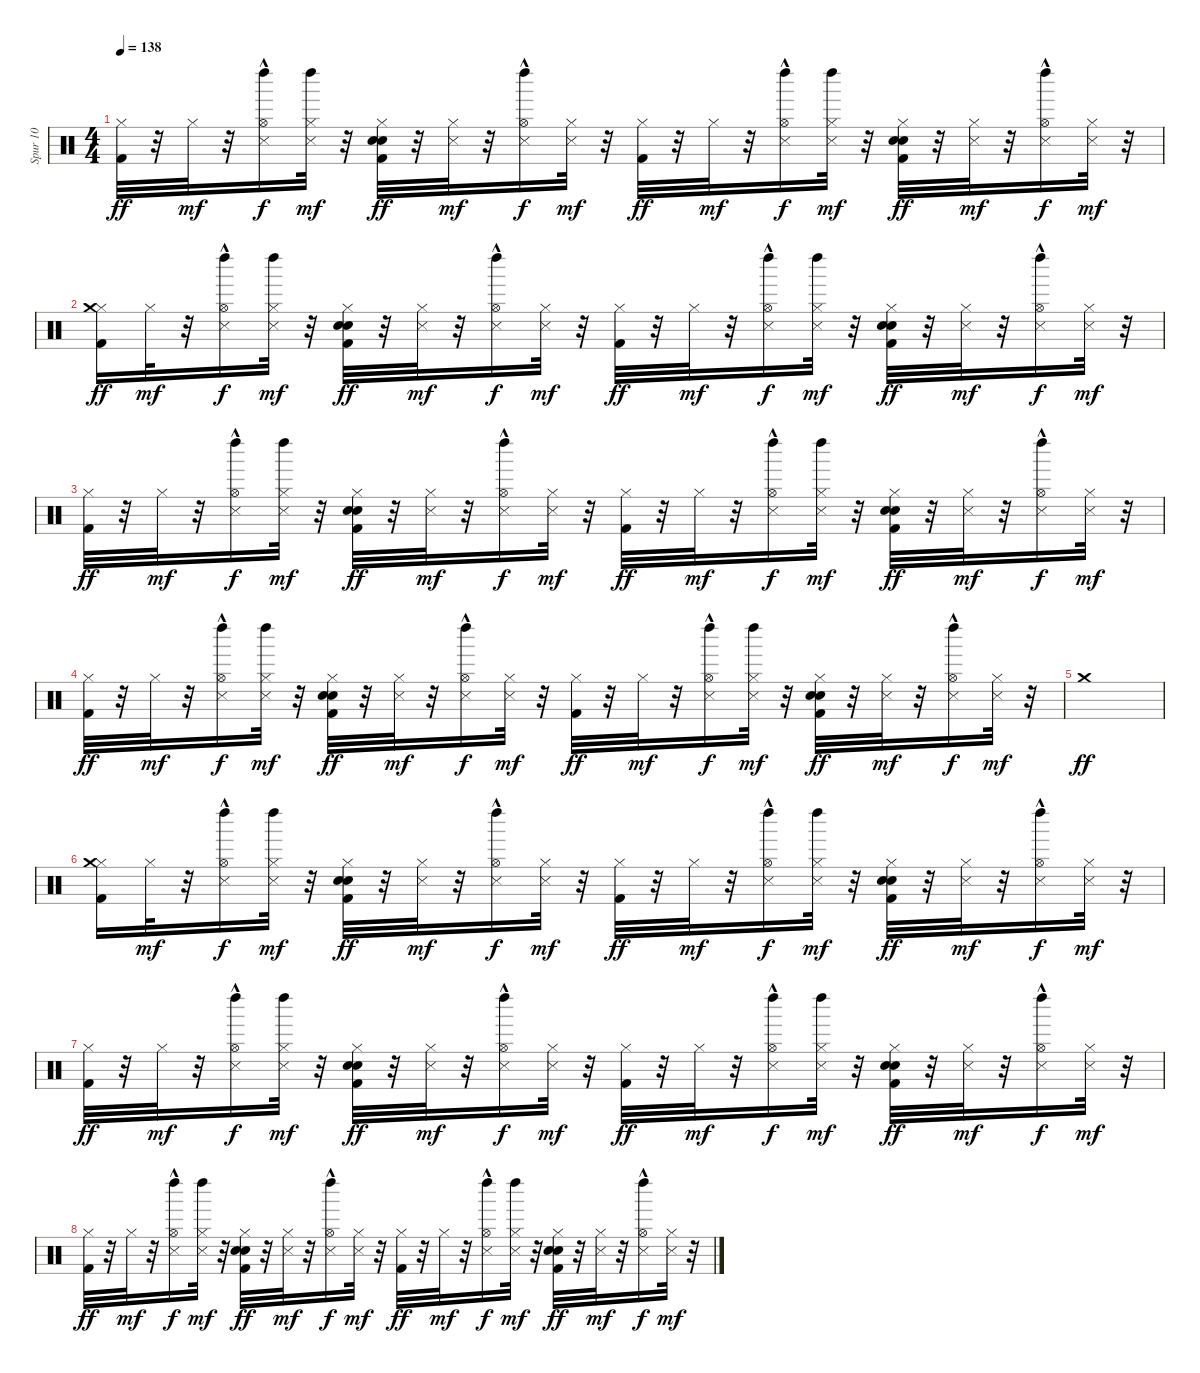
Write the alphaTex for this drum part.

\track ("Spur 10" "Spur 10") {instrument percussion}
\staff {score}
\articulation defaults
\ts (4 4)
\tempo 138
\clef neutral
\ks c
("Hi-Hat (closed)" "Kick (hit) 2").32{dy ff} r.32 "Hi-Hat (closed)".32{dy mf} r.32 ("Snare (side stick) 3" "Hi-Hat (open)"{hac} "Left Maraca (hit)").16{dy f} ("Hi-Hat (closed)" "Snare (side stick) 3" "Left Maraca (hit)").32{dy mf} r.32 ("Hand Clap (hit)" "Hi-Hat (closed)" "Kick (hit) 2" "Electric Snare (hit)").32{dy ff} r.32 ("Hi-Hat (closed)" "Snare (side stick) 3").32{dy mf} r.32 ("Snare (side stick) 3" "Hi-Hat (open)"{hac} "Left Maraca (hit)").16{dy f} ("Hi-Hat (closed)" "Snare (side stick) 3").32{dy mf} r.32 ("Hi-Hat (closed)" "Kick (hit) 2").32{dy ff} r.32 "Hi-Hat (closed)".32{dy mf} r.32 ("Snare (side stick) 3" "Hi-Hat (open)"{hac} "Left Maraca (hit)").16{dy f} ("Hi-Hat (closed)" "Snare (side stick) 3" "Left Maraca (hit)").32{dy mf} r.32 ("Hand Clap (hit)" "Hi-Hat (closed)" "Kick (hit) 2" "Electric Snare (hit)").32{dy ff} r.32 ("Hi-Hat (closed)" "Snare (side stick) 3").32{dy mf} r.32 ("Snare (side stick) 3" "Hi-Hat (open)"{hac} "Left Maraca (hit)").16{dy f} ("Hi-Hat (closed)" "Snare (side stick) 3").32{dy mf} r.32 |
("Hi-Hat (closed)" "Crash medium (hit)" "Kick (hit) 2").16{dy ff} "Hi-Hat (closed)".32{dy mf} r.32 ("Snare (side stick) 3" "Hi-Hat (open)"{hac} "Left Maraca (hit)").16{dy f} ("Hi-Hat (closed)" "Snare (side stick) 3" "Left Maraca (hit)").32{dy mf} r.32 ("Hand Clap (hit)" "Hi-Hat (closed)" "Kick (hit) 2" "Electric Snare (hit)").32{dy ff} r.32 ("Hi-Hat (closed)" "Snare (side stick) 3").32{dy mf} r.32 ("Snare (side stick) 3" "Hi-Hat (open)"{hac} "Left Maraca (hit)").16{dy f} ("Hi-Hat (closed)" "Snare (side stick) 3").32{dy mf} r.32 ("Hi-Hat (closed)" "Kick (hit) 2").32{dy ff} r.32 "Hi-Hat (closed)".32{dy mf} r.32 ("Snare (side stick) 3" "Hi-Hat (open)"{hac} "Left Maraca (hit)").16{dy f} ("Hi-Hat (closed)" "Snare (side stick) 3" "Left Maraca (hit)").32{dy mf} r.32 ("Hand Clap (hit)" "Hi-Hat (closed)" "Kick (hit) 2" "Electric Snare (hit)").32{dy ff} r.32 ("Hi-Hat (closed)" "Snare (side stick) 3").32{dy mf} r.32 ("Snare (side stick) 3" "Hi-Hat (open)"{hac} "Left Maraca (hit)").16{dy f} ("Hi-Hat (closed)" "Snare (side stick) 3").32{dy mf} r.32 |
("Hi-Hat (closed)" "Kick (hit) 2").32{dy ff} r.32 "Hi-Hat (closed)".32{dy mf} r.32 ("Snare (side stick) 3" "Hi-Hat (open)"{hac} "Left Maraca (hit)").16{dy f} ("Hi-Hat (closed)" "Snare (side stick) 3" "Left Maraca (hit)").32{dy mf} r.32 ("Hand Clap (hit)" "Hi-Hat (closed)" "Kick (hit) 2" "Electric Snare (hit)").32{dy ff} r.32 ("Hi-Hat (closed)" "Snare (side stick) 3").32{dy mf} r.32 ("Snare (side stick) 3" "Hi-Hat (open)"{hac} "Left Maraca (hit)").16{dy f} ("Hi-Hat (closed)" "Snare (side stick) 3").32{dy mf} r.32 ("Hi-Hat (closed)" "Kick (hit) 2").32{dy ff} r.32 "Hi-Hat (closed)".32{dy mf} r.32 ("Snare (side stick) 3" "Hi-Hat (open)"{hac} "Left Maraca (hit)").16{dy f} ("Hi-Hat (closed)" "Snare (side stick) 3" "Left Maraca (hit)").32{dy mf} r.32 ("Hand Clap (hit)" "Hi-Hat (closed)" "Kick (hit) 2" "Electric Snare (hit)").32{dy ff} r.32 ("Hi-Hat (closed)" "Snare (side stick) 3").32{dy mf} r.32 ("Snare (side stick) 3" "Hi-Hat (open)"{hac} "Left Maraca (hit)").16{dy f} ("Hi-Hat (closed)" "Snare (side stick) 3").32{dy mf} r.32 |
("Hi-Hat (closed)" "Kick (hit) 2").32{dy ff} r.32 "Hi-Hat (closed)".32{dy mf} r.32 ("Snare (side stick) 3" "Hi-Hat (open)"{hac} "Left Maraca (hit)").16{dy f} ("Hi-Hat (closed)" "Snare (side stick) 3" "Left Maraca (hit)").32{dy mf} r.32 ("Hand Clap (hit)" "Hi-Hat (closed)" "Kick (hit) 2" "Electric Snare (hit)").32{dy ff} r.32 ("Hi-Hat (closed)" "Snare (side stick) 3").32{dy mf} r.32 ("Snare (side stick) 3" "Hi-Hat (open)"{hac} "Left Maraca (hit)").16{dy f} ("Hi-Hat (closed)" "Snare (side stick) 3").32{dy mf} r.32 ("Hi-Hat (closed)" "Kick (hit) 2").32{dy ff} r.32 "Hi-Hat (closed)".32{dy mf} r.32 ("Snare (side stick) 3" "Hi-Hat (open)"{hac} "Left Maraca (hit)").16{dy f} ("Hi-Hat (closed)" "Snare (side stick) 3" "Left Maraca (hit)").32{dy mf} r.32 ("Hand Clap (hit)" "Hi-Hat (closed)" "Kick (hit) 2" "Electric Snare (hit)").32{dy ff} r.32 ("Hi-Hat (closed)" "Snare (side stick) 3").32{dy mf} r.32 ("Snare (side stick) 3" "Hi-Hat (open)"{hac} "Left Maraca (hit)").16{dy f} ("Hi-Hat (closed)" "Snare (side stick) 3").32{dy mf} r.32 |
"Crash medium (hit)".1{dy ff} |
("Hi-Hat (closed)" "Crash medium (hit)" "Kick (hit) 2").16 "Hi-Hat (closed)".32{dy mf} r.32 ("Snare (side stick) 3" "Hi-Hat (open)"{hac} "Left Maraca (hit)").16{dy f} ("Hi-Hat (closed)" "Snare (side stick) 3" "Left Maraca (hit)").32{dy mf} r.32 ("Hand Clap (hit)" "Hi-Hat (closed)" "Kick (hit) 2" "Electric Snare (hit)").32{dy ff} r.32 ("Hi-Hat (closed)" "Snare (side stick) 3").32{dy mf} r.32 ("Snare (side stick) 3" "Hi-Hat (open)"{hac} "Left Maraca (hit)").16{dy f} ("Hi-Hat (closed)" "Snare (side stick) 3").32{dy mf} r.32 ("Hi-Hat (closed)" "Kick (hit) 2").32{dy ff} r.32 "Hi-Hat (closed)".32{dy mf} r.32 ("Snare (side stick) 3" "Hi-Hat (open)"{hac} "Left Maraca (hit)").16{dy f} ("Hi-Hat (closed)" "Snare (side stick) 3" "Left Maraca (hit)").32{dy mf} r.32 ("Hand Clap (hit)" "Hi-Hat (closed)" "Kick (hit) 2" "Electric Snare (hit)").32{dy ff} r.32 ("Hi-Hat (closed)" "Snare (side stick) 3").32{dy mf} r.32 ("Snare (side stick) 3" "Hi-Hat (open)"{hac} "Left Maraca (hit)").16{dy f} ("Hi-Hat (closed)" "Snare (side stick) 3").32{dy mf} r.32 |
("Hi-Hat (closed)" "Kick (hit) 2").32{dy ff} r.32 "Hi-Hat (closed)".32{dy mf} r.32 ("Snare (side stick) 3" "Hi-Hat (open)"{hac} "Left Maraca (hit)").16{dy f} ("Hi-Hat (closed)" "Snare (side stick) 3" "Left Maraca (hit)").32{dy mf} r.32 ("Hand Clap (hit)" "Hi-Hat (closed)" "Kick (hit) 2" "Electric Snare (hit)").32{dy ff} r.32 ("Hi-Hat (closed)" "Snare (side stick) 3").32{dy mf} r.32 ("Snare (side stick) 3" "Hi-Hat (open)"{hac} "Left Maraca (hit)").16{dy f} ("Hi-Hat (closed)" "Snare (side stick) 3").32{dy mf} r.32 ("Hi-Hat (closed)" "Kick (hit) 2").32{dy ff} r.32 "Hi-Hat (closed)".32{dy mf} r.32 ("Snare (side stick) 3" "Hi-Hat (open)"{hac} "Left Maraca (hit)").16{dy f} ("Hi-Hat (closed)" "Snare (side stick) 3" "Left Maraca (hit)").32{dy mf} r.32 ("Hand Clap (hit)" "Hi-Hat (closed)" "Kick (hit) 2" "Electric Snare (hit)").32{dy ff} r.32 ("Hi-Hat (closed)" "Snare (side stick) 3").32{dy mf} r.32 ("Snare (side stick) 3" "Hi-Hat (open)"{hac} "Left Maraca (hit)").16{dy f} ("Hi-Hat (closed)" "Snare (side stick) 3").32{dy mf} r.32 |
("Hi-Hat (closed)" "Kick (hit) 2").32{dy ff} r.32 "Hi-Hat (closed)".32{dy mf} r.32 ("Snare (side stick) 3" "Hi-Hat (open)"{hac} "Left Maraca (hit)").16{dy f} ("Hi-Hat (closed)" "Snare (side stick) 3" "Left Maraca (hit)").32{dy mf} r.32 ("Hand Clap (hit)" "Hi-Hat (closed)" "Kick (hit) 2" "Electric Snare (hit)").32{dy ff} r.32 ("Hi-Hat (closed)" "Snare (side stick) 3").32{dy mf} r.32 ("Snare (side stick) 3" "Hi-Hat (open)"{hac} "Left Maraca (hit)").16{dy f} ("Hi-Hat (closed)" "Snare (side stick) 3").32{dy mf} r.32 ("Hi-Hat (closed)" "Kick (hit) 2").32{dy ff} r.32 "Hi-Hat (closed)".32{dy mf} r.32 ("Snare (side stick) 3" "Hi-Hat (open)"{hac} "Left Maraca (hit)").16{dy f} ("Hi-Hat (closed)" "Snare (side stick) 3" "Left Maraca (hit)").32{dy mf} r.32 ("Hand Clap (hit)" "Hi-Hat (closed)" "Kick (hit) 2" "Electric Snare (hit)").32{dy ff} r.32 ("Hi-Hat (closed)" "Snare (side stick) 3").32{dy mf} r.32 ("Snare (side stick) 3" "Hi-Hat (open)"{hac} "Left Maraca (hit)").16{dy f} ("Hi-Hat (closed)" "Snare (side stick) 3").32{dy mf} r.32
